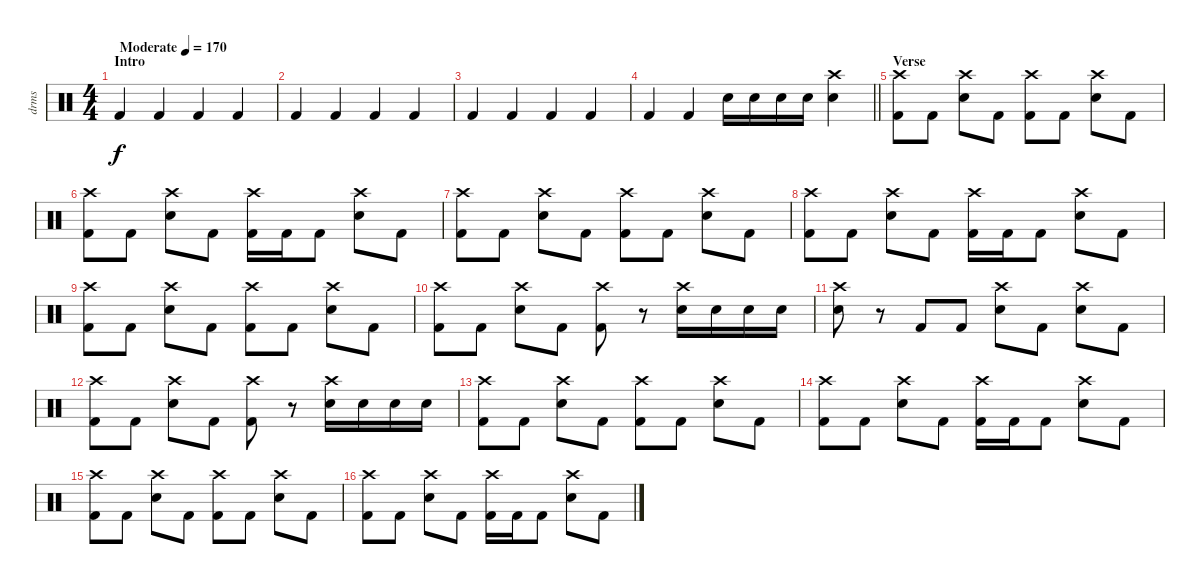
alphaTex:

\track ("drms" "drms") {instrument percussion}
\staff {score}
\articulation defaults
\ts (4 4)
\section ("" "Intro")
\tempo (170 "Moderate")
\clef neutral
\ks c "Kick (hit) 2".4{dy f} "Kick (hit) 2".4 "Kick (hit) 2".4 "Kick (hit) 2".4
|
"Kick (hit) 2".4 "Kick (hit) 2".4 "Kick (hit) 2".4 "Kick (hit) 2".4 |
"Kick (hit) 2".4 "Kick (hit) 2".4 "Kick (hit) 2".4 "Kick (hit) 2".4 |
\barLineRight lightlight "Kick (hit) 2".4 "Kick (hit) 2".4 "Snare (hit) 2".16 "Snare (hit) 2".16 "Snare (hit) 2".16 "Snare (hit) 2".16
("Crash high (hit)" "Snare (hit) 2").4 |
\section ("" "Verse")
("Crash high (hit)" "Kick (hit) 2").8 "Kick (hit) 2".8 ("Crash high (hit)" "Snare (hit) 2").8 "Kick (hit) 2".8 ("Crash high (hit)" "Kick (hit) 2").8 "Kick (hit) 2".8 ("Crash high (hit)" "Snare (hit) 2").8 "Kick (hit) 2".8 |
("Crash high (hit)" "Kick (hit) 2").8 "Kick (hit) 2".8 ("Crash high (hit)" "Snare (hit) 2").8 "Kick (hit) 2".8 ("Crash high (hit)" "Kick (hit) 2").16 "Kick (hit) 2".16 "Kick (hit) 2".8 ("Crash high (hit)" "Snare (hit) 2").8 "Kick (hit) 2".8 |
("Crash high (hit)" "Kick (hit) 2").8 "Kick (hit) 2".8 ("Crash high (hit)" "Snare (hit) 2").8 "Kick (hit) 2".8 ("Crash high (hit)" "Kick (hit) 2").8 "Kick (hit) 2".8 ("Crash high (hit)" "Snare (hit) 2").8 "Kick (hit) 2".8 |
("Crash high (hit)" "Kick (hit) 2").8 "Kick (hit) 2".8 ("Crash high (hit)" "Snare (hit) 2").8 "Kick (hit) 2".8 ("Crash high (hit)" "Kick (hit) 2").16 "Kick (hit) 2".16 "Kick (hit) 2".8 ("Crash high (hit)" "Snare (hit) 2").8 "Kick (hit) 2".8 |
("Crash high (hit)" "Kick (hit) 2").8 "Kick (hit) 2".8 ("Crash high (hit)" "Snare (hit) 2").8 "Kick (hit) 2".8 ("Crash high (hit)" "Kick (hit) 2").8 "Kick (hit) 2".8 ("Crash high (hit)" "Snare (hit) 2").8 "Kick (hit) 2".8 |
("Crash high (hit)" "Kick (hit) 2").8 "Kick (hit) 2".8 ("Crash high (hit)" "Snare (hit) 2").8 "Kick (hit) 2".8 ("Crash high (hit)" "Kick (hit) 2").8 r.8 ("Crash high (hit)" "Electric Snare (hit)").16 "Electric Snare (hit)".16 "Electric Snare (hit)".16 "Electric Snare (hit)".16 |
("Crash high (hit)" "Snare (hit) 2").8 r.8 "Kick (hit) 2".8 "Kick (hit) 2".8 ("Crash high (hit)" "Snare (hit) 2").8 "Kick (hit) 2".8 ("Crash high (hit)" "Snare (hit) 2").8 "Kick (hit) 2".8 |
("Crash high (hit)" "Kick (hit) 2").8 "Kick (hit) 2".8 ("Crash high (hit)" "Snare (hit) 2").8 "Kick (hit) 2".8 ("Crash high (hit)" "Kick (hit) 2").8 r.8 ("Crash high (hit)" "Electric Snare (hit)").16 "Electric Snare (hit)".16 "Electric Snare (hit)".16 "Electric Snare (hit)".16 |
("Crash high (hit)" "Kick (hit) 2").8 "Kick (hit) 2".8 ("Crash high (hit)" "Snare (hit) 2").8 "Kick (hit) 2".8 ("Crash high (hit)" "Kick (hit) 2").8 "Kick (hit) 2".8 ("Crash high (hit)" "Snare (hit) 2").8 "Kick (hit) 2".8 |
("Crash high (hit)" "Kick (hit) 2").8 "Kick (hit) 2".8 ("Crash high (hit)" "Snare (hit) 2").8 "Kick (hit) 2".8 ("Crash high (hit)" "Kick (hit) 2").16 "Kick (hit) 2".16 "Kick (hit) 2".8 ("Crash high (hit)" "Snare (hit) 2").8 "Kick (hit) 2".8 |
("Crash high (hit)" "Kick (hit) 2").8 "Kick (hit) 2".8 ("Crash high (hit)" "Snare (hit) 2").8 "Kick (hit) 2".8 ("Crash high (hit)" "Kick (hit) 2").8 "Kick (hit) 2".8 ("Crash high (hit)" "Snare (hit) 2").8 "Kick (hit) 2".8 |
("Crash high (hit)" "Kick (hit) 2").8 "Kick (hit) 2".8 ("Crash high (hit)" "Snare (hit) 2").8 "Kick (hit) 2".8 ("Crash high (hit)" "Kick (hit) 2").16 "Kick (hit) 2".16 "Kick (hit) 2".8 ("Crash high (hit)" "Snare (hit) 2").8 "Kick (hit) 2".8
